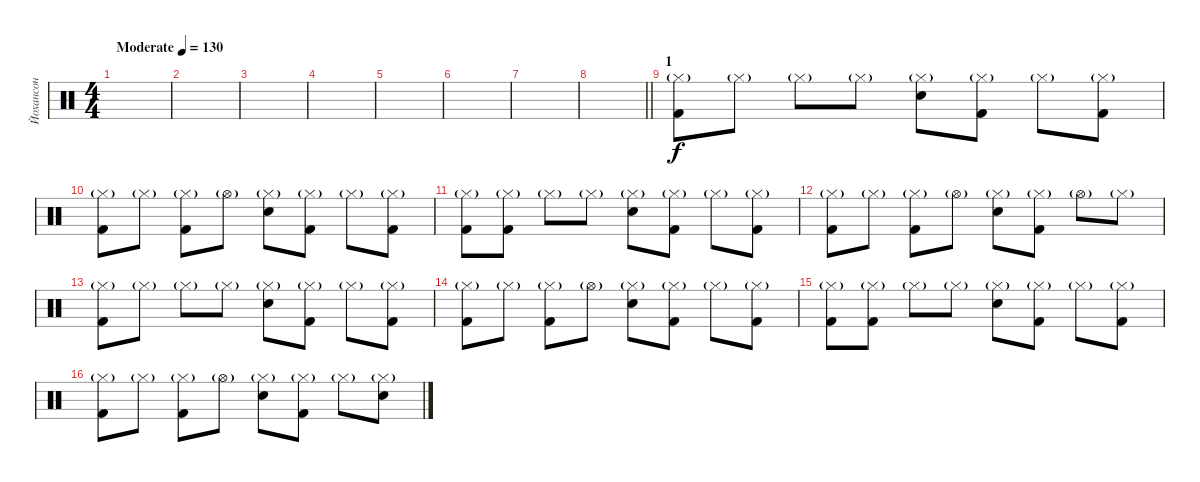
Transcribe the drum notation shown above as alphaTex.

\track ("Йохансон" "Йохансон") {instrument percussion}
\staff {score}
\articulation defaults
\ts (4 4)
\tempo (130 "Moderate")
\clef neutral
\ks c
|
|
|
|
|
|
|
\barLineRight lightlight
|
\section ("" "1")
("Hi-Hat (closed)"{g} "Kick (hit) 2").8 "Hi-Hat (closed)"{g}.8 "Hi-Hat (closed)"{g}.8 "Hi-Hat (closed)"{g}.8 ("Hi-Hat (closed)"{g} "Snare (hit) 2").8 ("Hi-Hat (closed)"{g} "Kick (hit) 2").8 "Hi-Hat (closed)"{g}.8 ("Hi-Hat (closed)"{g} "Kick (hit) 2").8 |
("Hi-Hat (closed)"{g} "Kick (hit) 2").8 "Hi-Hat (closed)"{g}.8 ("Hi-Hat (closed)"{g} "Kick (hit) 2").8 "Hi-Hat (open)"{g}.8 ("Hi-Hat (closed)"{g} "Snare (hit) 2").8 ("Hi-Hat (closed)"{g} "Kick (hit) 2").8 "Hi-Hat (closed)"{g}.8 ("Hi-Hat (closed)"{g} "Kick (hit) 2").8 |
("Hi-Hat (closed)"{g} "Kick (hit) 2").8 ("Hi-Hat (closed)"{g} "Kick (hit) 2").8 "Hi-Hat (closed)"{g}.8 "Hi-Hat (closed)"{g}.8 ("Hi-Hat (closed)"{g} "Snare (hit) 2").8 ("Hi-Hat (closed)"{g} "Kick (hit) 2").8 "Hi-Hat (closed)"{g}.8 ("Hi-Hat (closed)"{g} "Kick (hit) 2").8 |
("Hi-Hat (closed)"{g} "Kick (hit) 2").8 "Hi-Hat (closed)"{g}.8 ("Hi-Hat (closed)"{g} "Kick (hit) 2").8 "Hi-Hat (open)"{g}.8 ("Hi-Hat (closed)"{g} "Snare (hit) 2").8 ("Hi-Hat (closed)"{g} "Kick (hit) 2").8 "Hi-Hat (open)"{g}.8 "Hi-Hat (closed)"{g}.8 |
("Hi-Hat (closed)"{g} "Kick (hit) 2").8 "Hi-Hat (closed)"{g}.8 "Hi-Hat (closed)"{g}.8 "Hi-Hat (closed)"{g}.8 ("Hi-Hat (closed)"{g} "Snare (hit) 2").8 ("Hi-Hat (closed)"{g} "Kick (hit) 2").8 "Hi-Hat (closed)"{g}.8 ("Hi-Hat (closed)"{g} "Kick (hit) 2").8 |
("Hi-Hat (closed)"{g} "Kick (hit) 2").8 "Hi-Hat (closed)"{g}.8 ("Hi-Hat (closed)"{g} "Kick (hit) 2").8 "Hi-Hat (open)"{g}.8 ("Hi-Hat (closed)"{g} "Snare (hit) 2").8 ("Hi-Hat (closed)"{g} "Kick (hit) 2").8 "Hi-Hat (closed)"{g}.8 ("Hi-Hat (closed)"{g} "Kick (hit) 2").8 |
("Hi-Hat (closed)"{g} "Kick (hit) 2").8 ("Hi-Hat (closed)"{g} "Kick (hit) 2").8 "Hi-Hat (closed)"{g}.8 "Hi-Hat (closed)"{g}.8 ("Hi-Hat (closed)"{g} "Snare (hit) 2").8 ("Hi-Hat (closed)"{g} "Kick (hit) 2").8 "Hi-Hat (closed)"{g}.8 ("Hi-Hat (closed)"{g} "Kick (hit) 2").8 |
("Hi-Hat (closed)"{g} "Kick (hit) 2").8 "Hi-Hat (closed)"{g}.8 ("Hi-Hat (closed)"{g} "Kick (hit) 2").8 "Hi-Hat (open)"{g}.8 ("Hi-Hat (closed)"{g} "Snare (hit) 2").8 ("Hi-Hat (closed)"{g} "Kick (hit) 2").8 "Hi-Hat (closed)"{g}.8 ("Hi-Hat (closed)"{g} "Snare (hit) 2").8
